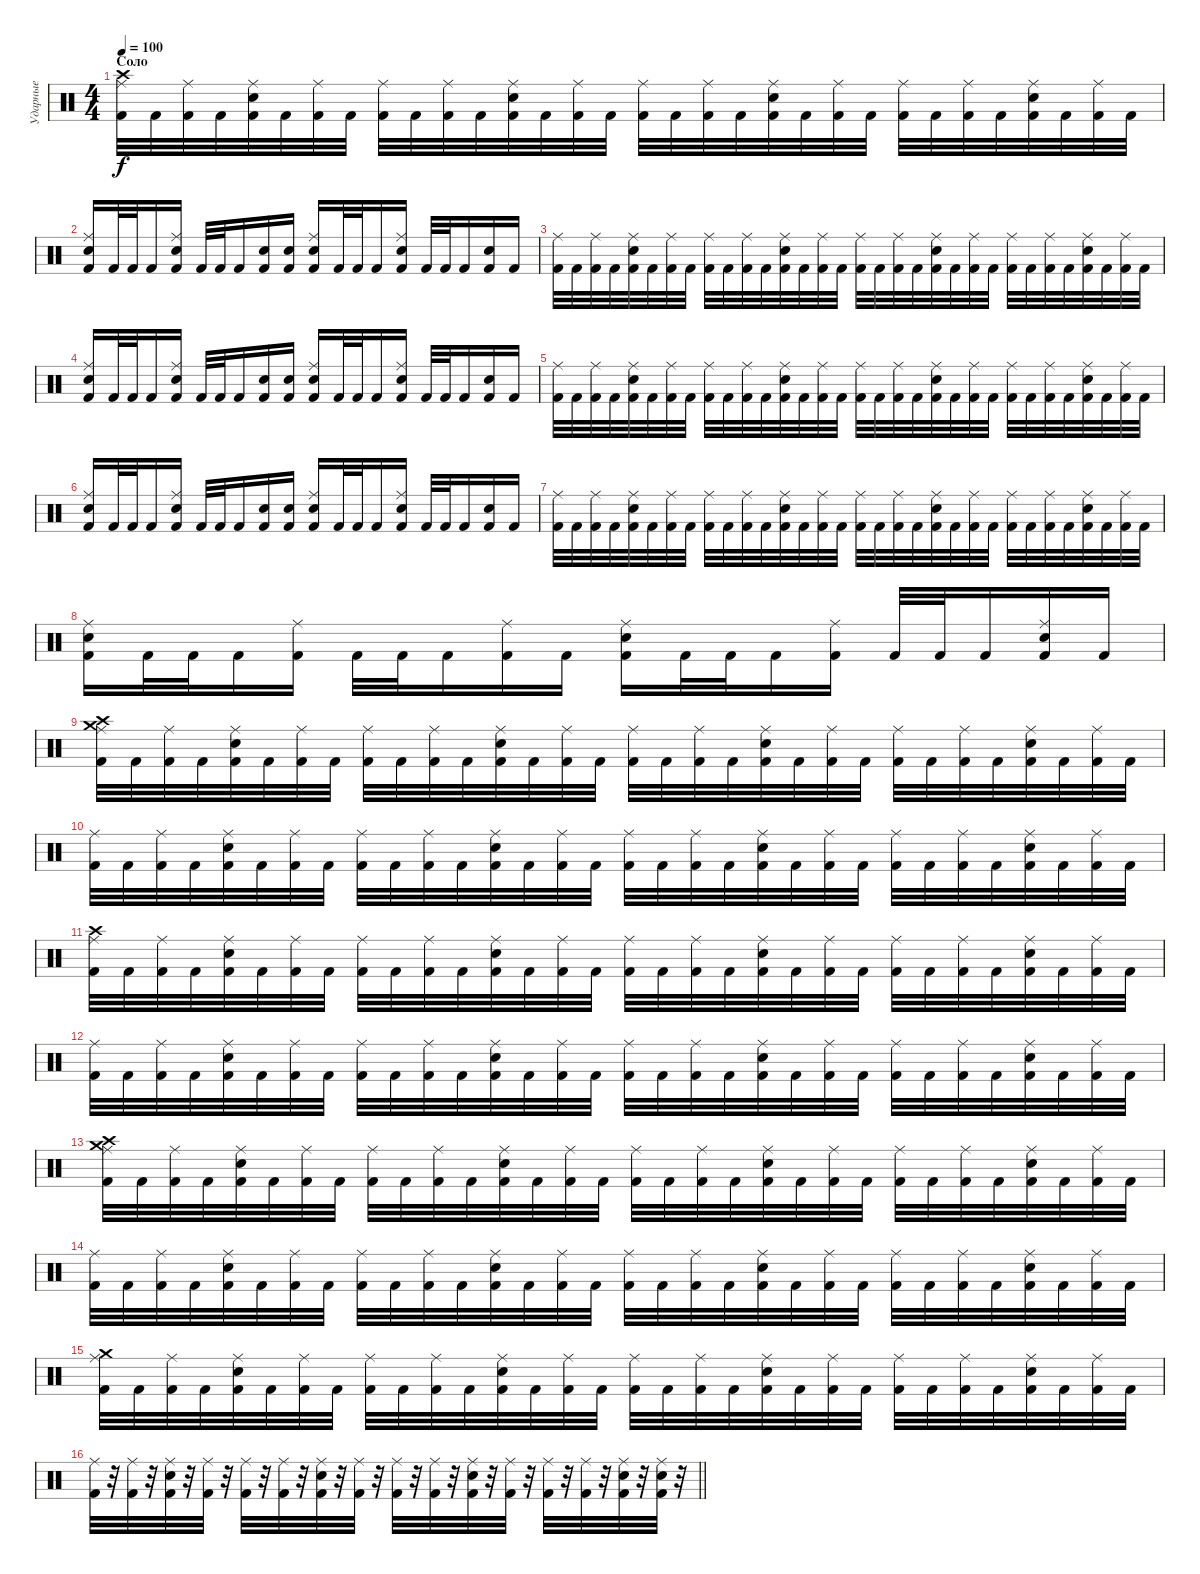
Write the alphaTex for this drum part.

\track ("Ударные" "Ударные") {instrument percussion}
\staff {score}
\articulation defaults
\ts (4 4)
\section ("" "Соло")
\tempo 100
\clef neutral
\ks c
("Crash high (hit)" "Kick (hit) 2" "Ride (middle)").32{dy f} "Kick (hit) 2".32 ("Kick (hit) 2" "Ride (middle)").32 "Kick (hit) 2".32 ("Snare (hit) 2" "Kick (hit) 2" "Ride (middle)").32 "Kick (hit) 2".32 ("Kick (hit) 2" "Ride (middle)").32 "Kick (hit) 2".32 ("Kick (hit) 2" "Ride (middle)").32 "Kick (hit) 2".32 ("Kick (hit) 2" "Ride (middle)").32 "Kick (hit) 2".32 ("Snare (hit) 2" "Kick (hit) 2" "Ride (middle)").32 "Kick (hit) 2".32 ("Kick (hit) 2" "Ride (middle)").32 "Kick (hit) 2".32 ("Kick (hit) 2" "Ride (middle)").32 "Kick (hit) 2".32 ("Kick (hit) 2" "Ride (middle)").32 "Kick (hit) 2".32 ("Snare (hit) 2" "Kick (hit) 2" "Ride (middle)").32 "Kick (hit) 2".32 ("Kick (hit) 2" "Ride (middle)").32 "Kick (hit) 2".32 ("Kick (hit) 2" "Ride (middle)").32 "Kick (hit) 2".32 ("Kick (hit) 2" "Ride (middle)").32 "Kick (hit) 2".32 ("Snare (hit) 2" "Kick (hit) 2" "Ride (middle)").32 "Kick (hit) 2".32 ("Kick (hit) 2" "Ride (middle)").32 "Kick (hit) 2".32 |
("Kick (hit) 2" "Snare (hit) 2" "Ride (middle)").16 "Kick (hit) 2".32 "Kick (hit) 2".32 "Kick (hit) 2".16 ("Kick (hit) 2" "Snare (hit) 2" "Ride (middle)").16 "Kick (hit) 2".32 "Kick (hit) 2".32 "Kick (hit) 2".16 ("Kick (hit) 2" "Snare (hit) 2").16 ("Kick (hit) 2" "Snare (hit) 2").16 ("Kick (hit) 2" "Snare (hit) 2" "Ride (middle)").16 "Kick (hit) 2".32 "Kick (hit) 2".32 "Kick (hit) 2".16 ("Kick (hit) 2" "Snare (hit) 2" "Ride (middle)").16 "Kick (hit) 2".32 "Kick (hit) 2".32 "Kick (hit) 2".16 ("Kick (hit) 2" "Snare (hit) 2").16 "Kick (hit) 2".16 |
("Kick (hit) 2" "Ride (middle)").32 "Kick (hit) 2".32 ("Kick (hit) 2" "Ride (middle)").32 "Kick (hit) 2".32 ("Snare (hit) 2" "Kick (hit) 2" "Ride (middle)").32 "Kick (hit) 2".32 ("Kick (hit) 2" "Ride (middle)").32 "Kick (hit) 2".32 ("Kick (hit) 2" "Ride (middle)").32 "Kick (hit) 2".32 ("Kick (hit) 2" "Ride (middle)").32 "Kick (hit) 2".32 ("Snare (hit) 2" "Kick (hit) 2" "Ride (middle)").32 "Kick (hit) 2".32 ("Kick (hit) 2" "Ride (middle)").32 "Kick (hit) 2".32 ("Kick (hit) 2" "Ride (middle)").32 "Kick (hit) 2".32 ("Kick (hit) 2" "Ride (middle)").32 "Kick (hit) 2".32 ("Snare (hit) 2" "Kick (hit) 2" "Ride (middle)").32 "Kick (hit) 2".32 ("Kick (hit) 2" "Ride (middle)").32 "Kick (hit) 2".32 ("Kick (hit) 2" "Ride (middle)").32 "Kick (hit) 2".32 ("Kick (hit) 2" "Ride (middle)").32 "Kick (hit) 2".32 ("Snare (hit) 2" "Kick (hit) 2" "Ride (middle)").32 "Kick (hit) 2".32 ("Kick (hit) 2" "Ride (middle)").32 "Kick (hit) 2".32 |
("Kick (hit) 2" "Snare (hit) 2" "Ride (middle)").16 "Kick (hit) 2".32 "Kick (hit) 2".32 "Kick (hit) 2".16 ("Kick (hit) 2" "Snare (hit) 2" "Ride (middle)").16 "Kick (hit) 2".32 "Kick (hit) 2".32 "Kick (hit) 2".16 ("Kick (hit) 2" "Snare (hit) 2").16 ("Kick (hit) 2" "Snare (hit) 2").16 ("Kick (hit) 2" "Snare (hit) 2" "Ride (middle)").16 "Kick (hit) 2".32 "Kick (hit) 2".32 "Kick (hit) 2".16 ("Kick (hit) 2" "Snare (hit) 2" "Ride (middle)").16 "Kick (hit) 2".32 "Kick (hit) 2".32 "Kick (hit) 2".16 ("Kick (hit) 2" "Snare (hit) 2").16 "Kick (hit) 2".16 |
("Kick (hit) 2" "Ride (middle)").32 "Kick (hit) 2".32 ("Kick (hit) 2" "Ride (middle)").32 "Kick (hit) 2".32 ("Snare (hit) 2" "Kick (hit) 2" "Ride (middle)").32 "Kick (hit) 2".32 ("Kick (hit) 2" "Ride (middle)").32 "Kick (hit) 2".32 ("Kick (hit) 2" "Ride (middle)").32 "Kick (hit) 2".32 ("Kick (hit) 2" "Ride (middle)").32 "Kick (hit) 2".32 ("Snare (hit) 2" "Kick (hit) 2" "Ride (middle)").32 "Kick (hit) 2".32 ("Kick (hit) 2" "Ride (middle)").32 "Kick (hit) 2".32 ("Kick (hit) 2" "Ride (middle)").32 "Kick (hit) 2".32 ("Kick (hit) 2" "Ride (middle)").32 "Kick (hit) 2".32 ("Snare (hit) 2" "Kick (hit) 2" "Ride (middle)").32 "Kick (hit) 2".32 ("Kick (hit) 2" "Ride (middle)").32 "Kick (hit) 2".32 ("Kick (hit) 2" "Ride (middle)").32 "Kick (hit) 2".32 ("Kick (hit) 2" "Ride (middle)").32 "Kick (hit) 2".32 ("Snare (hit) 2" "Kick (hit) 2" "Ride (middle)").32 "Kick (hit) 2".32 ("Kick (hit) 2" "Ride (middle)").32 "Kick (hit) 2".32 |
("Kick (hit) 2" "Snare (hit) 2" "Ride (middle)").16 "Kick (hit) 2".32 "Kick (hit) 2".32 "Kick (hit) 2".16 ("Kick (hit) 2" "Snare (hit) 2" "Ride (middle)").16 "Kick (hit) 2".32 "Kick (hit) 2".32 "Kick (hit) 2".16 ("Kick (hit) 2" "Snare (hit) 2").16 ("Kick (hit) 2" "Snare (hit) 2").16 ("Kick (hit) 2" "Snare (hit) 2" "Ride (middle)").16 "Kick (hit) 2".32 "Kick (hit) 2".32 "Kick (hit) 2".16 ("Kick (hit) 2" "Snare (hit) 2" "Ride (middle)").16 "Kick (hit) 2".32 "Kick (hit) 2".32 "Kick (hit) 2".16 ("Kick (hit) 2" "Snare (hit) 2").16 "Kick (hit) 2".16 |
("Kick (hit) 2" "Ride (middle)").32 "Kick (hit) 2".32 ("Kick (hit) 2" "Ride (middle)").32 "Kick (hit) 2".32 ("Snare (hit) 2" "Kick (hit) 2" "Ride (middle)").32 "Kick (hit) 2".32 ("Kick (hit) 2" "Ride (middle)").32 "Kick (hit) 2".32 ("Kick (hit) 2" "Ride (middle)").32 "Kick (hit) 2".32 ("Kick (hit) 2" "Ride (middle)").32 "Kick (hit) 2".32 ("Snare (hit) 2" "Kick (hit) 2" "Ride (middle)").32 "Kick (hit) 2".32 ("Kick (hit) 2" "Ride (middle)").32 "Kick (hit) 2".32 ("Kick (hit) 2" "Ride (middle)").32 "Kick (hit) 2".32 ("Kick (hit) 2" "Ride (middle)").32 "Kick (hit) 2".32 ("Snare (hit) 2" "Kick (hit) 2" "Ride (middle)").32 "Kick (hit) 2".32 ("Kick (hit) 2" "Ride (middle)").32 "Kick (hit) 2".32 ("Kick (hit) 2" "Ride (middle)").32 "Kick (hit) 2".32 ("Kick (hit) 2" "Ride (middle)").32 "Kick (hit) 2".32 ("Snare (hit) 2" "Kick (hit) 2" "Ride (middle)").32 "Kick (hit) 2".32 ("Kick (hit) 2" "Ride (middle)").32 "Kick (hit) 2".32 |
("Kick (hit) 2" "Snare (hit) 2" "Ride (middle)").16 "Kick (hit) 2".32 "Kick (hit) 2".32 "Kick (hit) 2".16 ("Kick (hit) 2" "Ride (middle)").16 "Kick (hit) 2".32 "Kick (hit) 2".32 "Kick (hit) 2".16 ("Kick (hit) 2" "Ride (middle)").16 "Kick (hit) 2".16 ("Kick (hit) 2" "Snare (hit) 2" "Ride (middle)").16 "Kick (hit) 2".32 "Kick (hit) 2".32 "Kick (hit) 2".16 ("Kick (hit) 2" "Ride (middle)").16 "Kick (hit) 2".32 "Kick (hit) 2".32 "Kick (hit) 2".16 ("Kick (hit) 2" "Snare (hit) 2" "Ride (middle)").16 "Kick (hit) 2".16 |
("Crash medium (hit)" "Crash high (hit)" "Kick (hit) 2" "Ride (middle)").32 "Kick (hit) 2".32 ("Kick (hit) 2" "Ride (middle)").32 "Kick (hit) 2".32 ("Snare (hit) 2" "Kick (hit) 2" "Ride (middle)").32 "Kick (hit) 2".32 ("Kick (hit) 2" "Ride (middle)").32 "Kick (hit) 2".32 ("Kick (hit) 2" "Ride (middle)").32 "Kick (hit) 2".32 ("Kick (hit) 2" "Ride (middle)").32 "Kick (hit) 2".32 ("Snare (hit) 2" "Kick (hit) 2" "Ride (middle)").32 "Kick (hit) 2".32 ("Kick (hit) 2" "Ride (middle)").32 "Kick (hit) 2".32 ("Kick (hit) 2" "Ride (middle)").32 "Kick (hit) 2".32 ("Kick (hit) 2" "Ride (middle)").32 "Kick (hit) 2".32 ("Snare (hit) 2" "Kick (hit) 2" "Ride (middle)").32 "Kick (hit) 2".32 ("Kick (hit) 2" "Ride (middle)").32 "Kick (hit) 2".32 ("Kick (hit) 2" "Ride (middle)").32 "Kick (hit) 2".32 ("Kick (hit) 2" "Ride (middle)").32 "Kick (hit) 2".32 ("Snare (hit) 2" "Kick (hit) 2" "Ride (middle)").32 "Kick (hit) 2".32 ("Kick (hit) 2" "Ride (middle)").32 "Kick (hit) 2".32 |
("Kick (hit) 2" "Ride (middle)").32 "Kick (hit) 2".32 ("Kick (hit) 2" "Ride (middle)").32 "Kick (hit) 2".32 ("Snare (hit) 2" "Kick (hit) 2" "Ride (middle)").32 "Kick (hit) 2".32 ("Kick (hit) 2" "Ride (middle)").32 "Kick (hit) 2".32 ("Kick (hit) 2" "Ride (middle)").32 "Kick (hit) 2".32 ("Kick (hit) 2" "Ride (middle)").32 "Kick (hit) 2".32 ("Snare (hit) 2" "Kick (hit) 2" "Ride (middle)").32 "Kick (hit) 2".32 ("Kick (hit) 2" "Ride (middle)").32 "Kick (hit) 2".32 ("Kick (hit) 2" "Ride (middle)").32 "Kick (hit) 2".32 ("Kick (hit) 2" "Ride (middle)").32 "Kick (hit) 2".32 ("Snare (hit) 2" "Kick (hit) 2" "Ride (middle)").32 "Kick (hit) 2".32 ("Kick (hit) 2" "Ride (middle)").32 "Kick (hit) 2".32 ("Kick (hit) 2" "Ride (middle)").32 "Kick (hit) 2".32 ("Kick (hit) 2" "Ride (middle)").32 "Kick (hit) 2".32 ("Snare (hit) 2" "Kick (hit) 2" "Ride (middle)").32 "Kick (hit) 2".32 ("Kick (hit) 2" "Ride (middle)").32 "Kick (hit) 2".32 |
("Crash high (hit)" "Kick (hit) 2" "Ride (middle)").32 "Kick (hit) 2".32 ("Kick (hit) 2" "Ride (middle)").32 "Kick (hit) 2".32 ("Snare (hit) 2" "Kick (hit) 2" "Ride (middle)").32 "Kick (hit) 2".32 ("Kick (hit) 2" "Ride (middle)").32 "Kick (hit) 2".32 ("Kick (hit) 2" "Ride (middle)").32 "Kick (hit) 2".32 ("Kick (hit) 2" "Ride (middle)").32 "Kick (hit) 2".32 ("Snare (hit) 2" "Kick (hit) 2" "Ride (middle)").32 "Kick (hit) 2".32 ("Kick (hit) 2" "Ride (middle)").32 "Kick (hit) 2".32 ("Kick (hit) 2" "Ride (middle)").32 "Kick (hit) 2".32 ("Kick (hit) 2" "Ride (middle)").32 "Kick (hit) 2".32 ("Snare (hit) 2" "Kick (hit) 2" "Ride (middle)").32 "Kick (hit) 2".32 ("Kick (hit) 2" "Ride (middle)").32 "Kick (hit) 2".32 ("Kick (hit) 2" "Ride (middle)").32 "Kick (hit) 2".32 ("Kick (hit) 2" "Ride (middle)").32 "Kick (hit) 2".32 ("Snare (hit) 2" "Kick (hit) 2" "Ride (middle)").32 "Kick (hit) 2".32 ("Kick (hit) 2" "Ride (middle)").32 "Kick (hit) 2".32 |
("Kick (hit) 2" "Ride (middle)").32 "Kick (hit) 2".32 ("Kick (hit) 2" "Ride (middle)").32 "Kick (hit) 2".32 ("Snare (hit) 2" "Kick (hit) 2" "Ride (middle)").32 "Kick (hit) 2".32 ("Kick (hit) 2" "Ride (middle)").32 "Kick (hit) 2".32 ("Kick (hit) 2" "Ride (middle)").32 "Kick (hit) 2".32 ("Kick (hit) 2" "Ride (middle)").32 "Kick (hit) 2".32 ("Snare (hit) 2" "Kick (hit) 2" "Ride (middle)").32 "Kick (hit) 2".32 ("Kick (hit) 2" "Ride (middle)").32 "Kick (hit) 2".32 ("Kick (hit) 2" "Ride (middle)").32 "Kick (hit) 2".32 ("Kick (hit) 2" "Ride (middle)").32 "Kick (hit) 2".32 ("Snare (hit) 2" "Kick (hit) 2" "Ride (middle)").32 "Kick (hit) 2".32 ("Kick (hit) 2" "Ride (middle)").32 "Kick (hit) 2".32 ("Kick (hit) 2" "Ride (middle)").32 "Kick (hit) 2".32 ("Kick (hit) 2" "Ride (middle)").32 "Kick (hit) 2".32 ("Snare (hit) 2" "Kick (hit) 2" "Ride (middle)").32 "Kick (hit) 2".32 ("Kick (hit) 2" "Ride (middle)").32 "Kick (hit) 2".32 |
("Crash high (hit)" "Crash medium (hit)" "Kick (hit) 2" "Ride (middle)").32 "Kick (hit) 2".32 ("Kick (hit) 2" "Ride (middle)").32 "Kick (hit) 2".32 ("Snare (hit) 2" "Kick (hit) 2" "Ride (middle)").32 "Kick (hit) 2".32 ("Kick (hit) 2" "Ride (middle)").32 "Kick (hit) 2".32 ("Kick (hit) 2" "Ride (middle)").32 "Kick (hit) 2".32 ("Kick (hit) 2" "Ride (middle)").32 "Kick (hit) 2".32 ("Snare (hit) 2" "Kick (hit) 2" "Ride (middle)").32 "Kick (hit) 2".32 ("Kick (hit) 2" "Ride (middle)").32 "Kick (hit) 2".32 ("Kick (hit) 2" "Ride (middle)").32 "Kick (hit) 2".32 ("Kick (hit) 2" "Ride (middle)").32 "Kick (hit) 2".32 ("Snare (hit) 2" "Kick (hit) 2" "Ride (middle)").32 "Kick (hit) 2".32 ("Kick (hit) 2" "Ride (middle)").32 "Kick (hit) 2".32 ("Kick (hit) 2" "Ride (middle)").32 "Kick (hit) 2".32 ("Kick (hit) 2" "Ride (middle)").32 "Kick (hit) 2".32 ("Snare (hit) 2" "Kick (hit) 2" "Ride (middle)").32 "Kick (hit) 2".32 ("Kick (hit) 2" "Ride (middle)").32 "Kick (hit) 2".32 |
("Kick (hit) 2" "Ride (middle)").32 "Kick (hit) 2".32 ("Kick (hit) 2" "Ride (middle)").32 "Kick (hit) 2".32 ("Snare (hit) 2" "Kick (hit) 2" "Ride (middle)").32 "Kick (hit) 2".32 ("Kick (hit) 2" "Ride (middle)").32 "Kick (hit) 2".32 ("Kick (hit) 2" "Ride (middle)").32 "Kick (hit) 2".32 ("Kick (hit) 2" "Ride (middle)").32 "Kick (hit) 2".32 ("Snare (hit) 2" "Kick (hit) 2" "Ride (middle)").32 "Kick (hit) 2".32 ("Kick (hit) 2" "Ride (middle)").32 "Kick (hit) 2".32 ("Kick (hit) 2" "Ride (middle)").32 "Kick (hit) 2".32 ("Kick (hit) 2" "Ride (middle)").32 "Kick (hit) 2".32 ("Snare (hit) 2" "Kick (hit) 2" "Ride (middle)").32 "Kick (hit) 2".32 ("Kick (hit) 2" "Ride (middle)").32 "Kick (hit) 2".32 ("Kick (hit) 2" "Ride (middle)").32 "Kick (hit) 2".32 ("Kick (hit) 2" "Ride (middle)").32 "Kick (hit) 2".32 ("Snare (hit) 2" "Kick (hit) 2" "Ride (middle)").32 "Kick (hit) 2".32 ("Kick (hit) 2" "Ride (middle)").32 "Kick (hit) 2".32 |
("Crash medium (hit)" "Kick (hit) 2" "Ride (middle)").32 "Kick (hit) 2".32 ("Kick (hit) 2" "Ride (middle)").32 "Kick (hit) 2".32 ("Snare (hit) 2" "Kick (hit) 2" "Ride (middle)").32 "Kick (hit) 2".32 ("Kick (hit) 2" "Ride (middle)").32 "Kick (hit) 2".32 ("Kick (hit) 2" "Ride (middle)").32 "Kick (hit) 2".32 ("Kick (hit) 2" "Ride (middle)").32 "Kick (hit) 2".32 ("Snare (hit) 2" "Kick (hit) 2" "Ride (middle)").32 "Kick (hit) 2".32 ("Kick (hit) 2" "Ride (middle)").32 "Kick (hit) 2".32 ("Kick (hit) 2" "Ride (middle)").32 "Kick (hit) 2".32 ("Kick (hit) 2" "Ride (middle)").32 "Kick (hit) 2".32 ("Snare (hit) 2" "Kick (hit) 2" "Ride (middle)").32 "Kick (hit) 2".32 ("Kick (hit) 2" "Ride (middle)").32 "Kick (hit) 2".32 ("Kick (hit) 2" "Ride (middle)").32 "Kick (hit) 2".32 ("Kick (hit) 2" "Ride (middle)").32 "Kick (hit) 2".32 ("Snare (hit) 2" "Kick (hit) 2" "Ride (middle)").32 "Kick (hit) 2".32 ("Kick (hit) 2" "Ride (middle)").32 "Kick (hit) 2".32 |
\barLineRight lightlight
("Kick (hit) 2" "Ride (middle)").32 r.32 ("Kick (hit) 2" "Ride (middle)").32 r.32 ("Snare (hit) 2" "Kick (hit) 2" "Ride (middle)").32 r.32 ("Kick (hit) 2" "Ride (middle)").32 r.32 ("Kick (hit) 2" "Ride (middle)").32 r.32 ("Kick (hit) 2" "Ride (middle)").32 r.32 ("Snare (hit) 2" "Kick (hit) 2" "Ride (middle)").32 r.32 ("Kick (hit) 2" "Ride (middle)").32 r.32 ("Kick (hit) 2" "Ride (middle)").32 r.32 ("Kick (hit) 2" "Ride (middle)").32 r.32 ("Snare (hit) 2" "Kick (hit) 2" "Ride (middle)").32 r.32 ("Kick (hit) 2" "Ride (middle)").32 r.32 ("Kick (hit) 2" "Ride (middle)").32 r.32 ("Kick (hit) 2" "Ride (middle)").32 r.32 ("Snare (hit) 2" "Kick (hit) 2" "Ride (middle)").32 r.32 ("Snare (hit) 2" "Kick (hit) 2" "Ride (middle)").32 r.32
